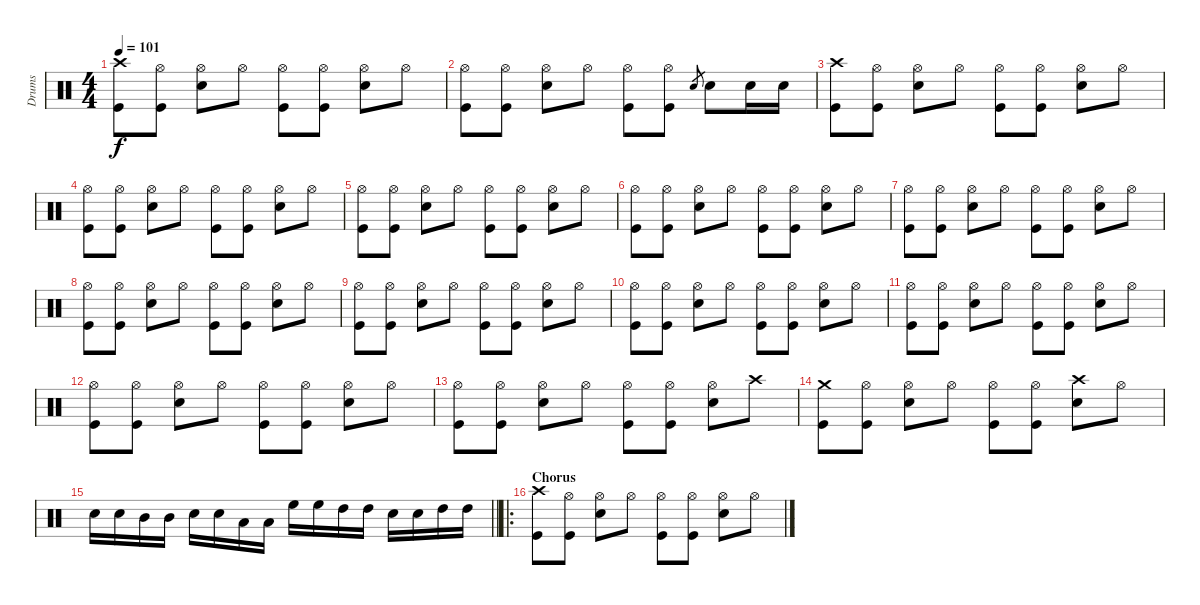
\track ("Drums" "Drums") {instrument percussion}
\staff {score}
\articulation defaults
\ts (4 4)
\tempo 101
\clef neutral
\ks c
("Crash high (hit)" "Kick (hit)").8{dy f} ("Hi-Hat (open)" "Kick (hit)").8 ("Hi-Hat (open)" "Snare (hit) 2").8 "Hi-Hat (open)".8 ("Hi-Hat (open)" "Kick (hit)").8 ("Hi-Hat (open)" "Kick (hit)").8 ("Hi-Hat (open)" "Snare (hit) 2").8 "Hi-Hat (open)".8 |
("Hi-Hat (open)" "Kick (hit)").8 ("Hi-Hat (open)" "Kick (hit)").8 ("Hi-Hat (open)" "Snare (hit) 2").8 "Hi-Hat (open)".8 ("Hi-Hat (open)" "Kick (hit)").8 ("Hi-Hat (open)" "Kick (hit)").8 "Snare (hit) 2"{h}.8{gr} "Snare (hit) 2".8 "Snare (hit) 2".16 "Snare (hit) 2".16 |
("Crash high (hit)" "Kick (hit)").8 ("Hi-Hat (open)" "Kick (hit)").8 ("Hi-Hat (open)" "Snare (hit) 2").8 "Hi-Hat (open)".8 ("Hi-Hat (open)" "Kick (hit)").8 ("Hi-Hat (open)" "Kick (hit)").8 ("Hi-Hat (open)" "Snare (hit) 2").8 "Hi-Hat (open)".8 |
("Hi-Hat (open)" "Kick (hit)").8 ("Hi-Hat (open)" "Kick (hit)").8 ("Hi-Hat (open)" "Snare (hit) 2").8 "Hi-Hat (open)".8 ("Hi-Hat (open)" "Kick (hit)").8 ("Hi-Hat (open)" "Kick (hit)").8 ("Hi-Hat (open)" "Snare (hit) 2").8 "Hi-Hat (open)".8 |
("Hi-Hat (open)" "Kick (hit)").8 ("Hi-Hat (open)" "Kick (hit)").8 ("Hi-Hat (open)" "Snare (hit) 2").8 "Hi-Hat (open)".8 ("Hi-Hat (open)" "Kick (hit)").8 ("Hi-Hat (open)" "Kick (hit)").8 ("Hi-Hat (open)" "Snare (hit) 2").8 "Hi-Hat (open)".8 |
("Hi-Hat (open)" "Kick (hit)").8 ("Hi-Hat (open)" "Kick (hit)").8 ("Hi-Hat (open)" "Snare (hit) 2").8 "Hi-Hat (open)".8 ("Hi-Hat (open)" "Kick (hit)").8 ("Hi-Hat (open)" "Kick (hit)").8 ("Hi-Hat (open)" "Snare (hit) 2").8 "Hi-Hat (open)".8 |
("Hi-Hat (open)" "Kick (hit)").8 ("Hi-Hat (open)" "Kick (hit)").8 ("Hi-Hat (open)" "Snare (hit) 2").8 "Hi-Hat (open)".8 ("Hi-Hat (open)" "Kick (hit)").8 ("Hi-Hat (open)" "Kick (hit)").8 ("Hi-Hat (open)" "Snare (hit) 2").8 "Hi-Hat (open)".8 |
("Hi-Hat (open)" "Kick (hit)").8 ("Hi-Hat (open)" "Kick (hit)").8 ("Hi-Hat (open)" "Snare (hit) 2").8 "Hi-Hat (open)".8 ("Hi-Hat (open)" "Kick (hit)").8 ("Hi-Hat (open)" "Kick (hit)").8 ("Hi-Hat (open)" "Snare (hit) 2").8 "Hi-Hat (open)".8 |
("Hi-Hat (open)" "Kick (hit)").8 ("Hi-Hat (open)" "Kick (hit)").8 ("Hi-Hat (open)" "Snare (hit) 2").8 "Hi-Hat (open)".8 ("Hi-Hat (open)" "Kick (hit)").8 ("Hi-Hat (open)" "Kick (hit)").8 ("Hi-Hat (open)" "Snare (hit) 2").8 "Hi-Hat (open)".8 |
("Hi-Hat (open)" "Kick (hit)").8 ("Hi-Hat (open)" "Kick (hit)").8 ("Hi-Hat (open)" "Snare (hit) 2").8 "Hi-Hat (open)".8 ("Hi-Hat (open)" "Kick (hit)").8 ("Hi-Hat (open)" "Kick (hit)").8 ("Hi-Hat (open)" "Snare (hit) 2").8 "Hi-Hat (open)".8 |
("Hi-Hat (open)" "Kick (hit)").8 ("Hi-Hat (open)" "Kick (hit)").8 ("Hi-Hat (open)" "Snare (hit) 2").8 "Hi-Hat (open)".8 ("Hi-Hat (open)" "Kick (hit)").8 ("Hi-Hat (open)" "Kick (hit)").8 ("Hi-Hat (open)" "Snare (hit) 2").8 "Hi-Hat (open)".8 |
("Hi-Hat (open)" "Kick (hit)").8 ("Hi-Hat (open)" "Kick (hit)").8 ("Hi-Hat (open)" "Snare (hit) 2").8 "Hi-Hat (open)".8 ("Hi-Hat (open)" "Kick (hit)").8 ("Hi-Hat (open)" "Kick (hit)").8 ("Hi-Hat (open)" "Snare (hit) 2").8 "Hi-Hat (open)".8 |
("Hi-Hat (open)" "Kick (hit)").8 ("Hi-Hat (open)" "Kick (hit)").8 ("Hi-Hat (open)" "Snare (hit) 2").8 "Hi-Hat (open)".8 ("Hi-Hat (open)" "Kick (hit)").8 ("Hi-Hat (open)" "Kick (hit)").8 ("Hi-Hat (open)" "Snare (hit) 2").8 "Crash high (hit)".8 |
("Crash medium (hit)" "Kick (hit)").8 ("Hi-Hat (open)" "Kick (hit)").8 ("Hi-Hat (open)" "Snare (hit) 2").8 "Hi-Hat (open)".8 ("Hi-Hat (open)" "Kick (hit)").8 ("Hi-Hat (open)" "Kick (hit)").8 ("Crash high (hit)" "Snare (hit) 2").8 "Hi-Hat (open)".8 |
\barLineRight lightlight "Snare (hit) 2".16 "Snare (hit) 2".16 "Mid Tom (hit)".16 "Mid Tom (hit)".16 "Snare (hit) 2".16 "Snare (hit) 2".16 "Low Tom (hit)".16 "Low Tom (hit)".16 "High Floor Tom (hit)".16 "High Floor Tom (hit)".16 "High Tom (hit)".16 "High Tom (hit)".16 "Snare (hit) 2".16 "Snare (hit) 2".16 "High Tom (hit)".16 "High Tom (hit)".16
|
\ro
\section ("" "Chorus")
("Crash high (hit)" "Kick (hit)").8 ("Hi-Hat (open)" "Kick (hit)").8 ("Hi-Hat (open)" "Snare (hit) 2").8 "Hi-Hat (open)".8 ("Hi-Hat (open)" "Kick (hit)").8 ("Hi-Hat (open)" "Kick (hit)").8 ("Hi-Hat (open)" "Snare (hit) 2").8 "Hi-Hat (open)".8
